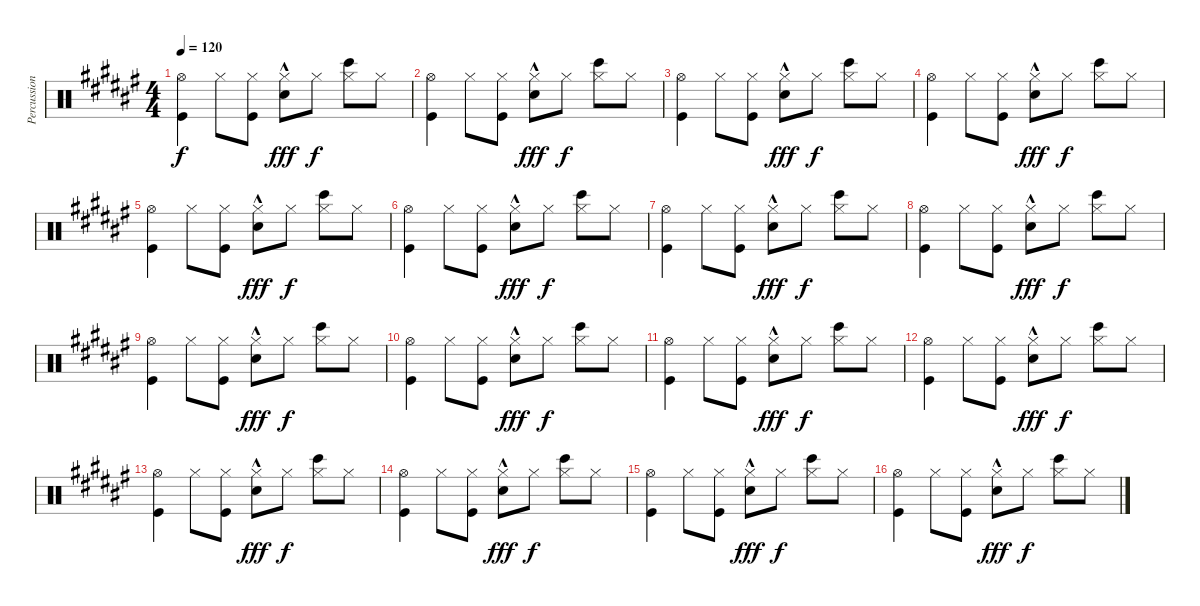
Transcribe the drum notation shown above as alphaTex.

\track ("Percussion" "Percussion") {instrument percussion}
\staff {score}
\articulation defaults
\ts (4 4)
\tempo 120
\clef neutral
\ks f#
("Kick (hit)" "Hi-Hat (open)").4{dy f} "Hi-Hat (closed)".8 ("Kick (hit)" "Hi-Hat (closed)").8 ("Electric Snare (hit)"{hac} "Hi-Hat (closed)").8{dy fff} "Hi-Hat (closed)".8{dy f} ("Bongo High (hit)" "Hi-Hat (closed)").8 "Hi-Hat (closed)".8 |
("Kick (hit)" "Hi-Hat (open)").4 "Hi-Hat (closed)".8 ("Kick (hit)" "Hi-Hat (closed)").8 ("Electric Snare (hit)"{hac} "Hi-Hat (closed)").8{dy fff} "Hi-Hat (closed)".8{dy f} ("Bongo High (hit)" "Hi-Hat (closed)").8 "Hi-Hat (closed)".8 |
("Kick (hit)" "Hi-Hat (open)").4 "Hi-Hat (closed)".8 ("Kick (hit)" "Hi-Hat (closed)").8 ("Electric Snare (hit)"{hac} "Hi-Hat (closed)").8{dy fff} "Hi-Hat (closed)".8{dy f} ("Bongo High (hit)" "Hi-Hat (closed)").8 "Hi-Hat (closed)".8 |
("Kick (hit)" "Hi-Hat (open)").4 "Hi-Hat (closed)".8 ("Kick (hit)" "Hi-Hat (closed)").8 ("Electric Snare (hit)"{hac} "Hi-Hat (closed)").8{dy fff} "Hi-Hat (closed)".8{dy f} ("Bongo High (hit)" "Hi-Hat (closed)").8 "Hi-Hat (closed)".8 |
("Kick (hit)" "Hi-Hat (open)").4 "Hi-Hat (closed)".8 ("Kick (hit)" "Hi-Hat (closed)").8 ("Electric Snare (hit)"{hac} "Hi-Hat (closed)").8{dy fff} "Hi-Hat (closed)".8{dy f} ("Bongo High (hit)" "Hi-Hat (closed)").8 "Hi-Hat (closed)".8 |
("Kick (hit)" "Hi-Hat (open)").4 "Hi-Hat (closed)".8 ("Kick (hit)" "Hi-Hat (closed)").8 ("Electric Snare (hit)"{hac} "Hi-Hat (closed)").8{dy fff} "Hi-Hat (closed)".8{dy f} ("Bongo High (hit)" "Hi-Hat (closed)").8 "Hi-Hat (closed)".8 |
("Kick (hit)" "Hi-Hat (open)").4 "Hi-Hat (closed)".8 ("Kick (hit)" "Hi-Hat (closed)").8 ("Electric Snare (hit)"{hac} "Hi-Hat (closed)").8{dy fff} "Hi-Hat (closed)".8{dy f} ("Bongo High (hit)" "Hi-Hat (closed)").8 "Hi-Hat (closed)".8 |
("Kick (hit)" "Hi-Hat (open)").4 "Hi-Hat (closed)".8 ("Kick (hit)" "Hi-Hat (closed)").8 ("Electric Snare (hit)"{hac} "Hi-Hat (closed)").8{dy fff} "Hi-Hat (closed)".8{dy f} ("Bongo High (hit)" "Hi-Hat (closed)").8 "Hi-Hat (closed)".8 |
("Kick (hit)" "Hi-Hat (open)").4 "Hi-Hat (closed)".8 ("Kick (hit)" "Hi-Hat (closed)").8 ("Electric Snare (hit)"{hac} "Hi-Hat (closed)").8{dy fff} "Hi-Hat (closed)".8{dy f} ("Bongo High (hit)" "Hi-Hat (closed)").8 "Hi-Hat (closed)".8 |
("Kick (hit)" "Hi-Hat (open)").4 "Hi-Hat (closed)".8 ("Kick (hit)" "Hi-Hat (closed)").8 ("Electric Snare (hit)"{hac} "Hi-Hat (closed)").8{dy fff} "Hi-Hat (closed)".8{dy f} ("Bongo High (hit)" "Hi-Hat (closed)").8 "Hi-Hat (closed)".8 |
("Kick (hit)" "Hi-Hat (open)").4 "Hi-Hat (closed)".8 ("Kick (hit)" "Hi-Hat (closed)").8 ("Electric Snare (hit)"{hac} "Hi-Hat (closed)").8{dy fff} "Hi-Hat (closed)".8{dy f} ("Bongo High (hit)" "Hi-Hat (closed)").8 "Hi-Hat (closed)".8 |
("Kick (hit)" "Hi-Hat (open)").4 "Hi-Hat (closed)".8 ("Kick (hit)" "Hi-Hat (closed)").8 ("Electric Snare (hit)"{hac} "Hi-Hat (closed)").8{dy fff} "Hi-Hat (closed)".8{dy f} ("Bongo High (hit)" "Hi-Hat (closed)").8 "Hi-Hat (closed)".8 |
("Kick (hit)" "Hi-Hat (open)").4 "Hi-Hat (closed)".8 ("Kick (hit)" "Hi-Hat (closed)").8 ("Electric Snare (hit)"{hac} "Hi-Hat (closed)").8{dy fff} "Hi-Hat (closed)".8{dy f} ("Bongo High (hit)" "Hi-Hat (closed)").8 "Hi-Hat (closed)".8 |
("Kick (hit)" "Hi-Hat (open)").4 "Hi-Hat (closed)".8 ("Kick (hit)" "Hi-Hat (closed)").8 ("Electric Snare (hit)"{hac} "Hi-Hat (closed)").8{dy fff} "Hi-Hat (closed)".8{dy f} ("Bongo High (hit)" "Hi-Hat (closed)").8 "Hi-Hat (closed)".8 |
("Kick (hit)" "Hi-Hat (open)").4 "Hi-Hat (closed)".8 ("Kick (hit)" "Hi-Hat (closed)").8 ("Electric Snare (hit)"{hac} "Hi-Hat (closed)").8{dy fff} "Hi-Hat (closed)".8{dy f} ("Bongo High (hit)" "Hi-Hat (closed)").8 "Hi-Hat (closed)".8 |
("Kick (hit)" "Hi-Hat (open)").4 "Hi-Hat (closed)".8 ("Kick (hit)" "Hi-Hat (closed)").8 ("Electric Snare (hit)"{hac} "Hi-Hat (closed)").8{dy fff} "Hi-Hat (closed)".8{dy f} ("Bongo High (hit)" "Hi-Hat (closed)").8 "Hi-Hat (closed)".8
